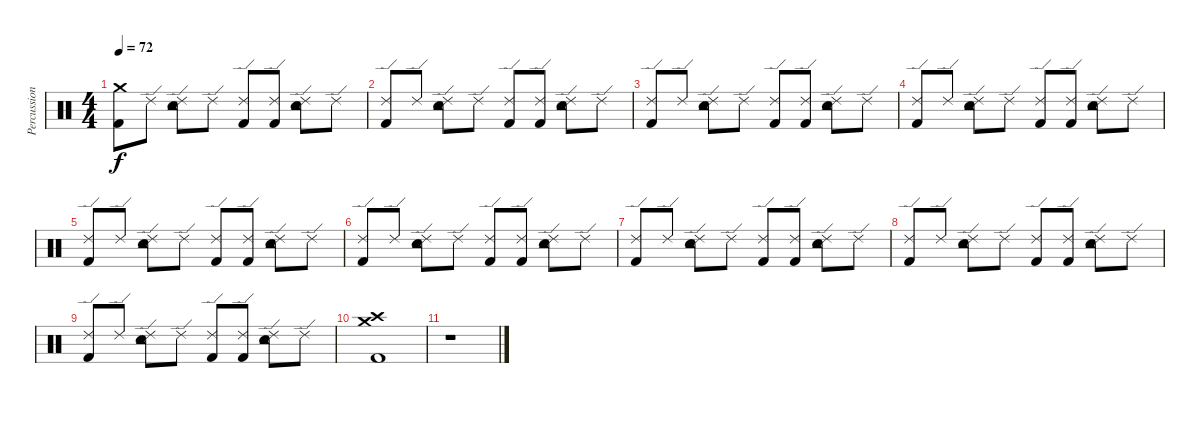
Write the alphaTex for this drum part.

\track ("Percussion" "Percussion") {instrument percussion}
\staff {score}
\articulation defaults
\ts (4 4)
\tempo 72
\clef neutral
\ks c
("Crash medium (hit)" "Kick (hit) 2").8{dy f} "Ride (edge) 2".8 ("Ride (edge) 2" "Snare (hit) 2" "Tambourine (hit)").8 "Ride (edge) 2".8 ("Ride (edge) 2" "Kick (hit) 2").8 ("Ride (edge) 2" "Kick (hit) 2").8 ("Ride (edge) 2" "Snare (hit) 2" "Tambourine (hit)").8 "Ride (edge) 2".8 |
("Ride (edge) 2" "Kick (hit) 2").8 "Ride (edge) 2".8 ("Ride (edge) 2" "Snare (hit) 2" "Tambourine (hit)").8 "Ride (edge) 2".8 ("Ride (edge) 2" "Kick (hit) 2").8 ("Ride (edge) 2" "Kick (hit) 2").8 ("Ride (edge) 2" "Snare (hit) 2" "Tambourine (hit)").8 "Ride (edge) 2".8 |
("Ride (edge) 2" "Kick (hit) 2").8 "Ride (edge) 2".8 ("Ride (edge) 2" "Snare (hit) 2" "Tambourine (hit)").8 "Ride (edge) 2".8 ("Ride (edge) 2" "Kick (hit) 2").8 ("Ride (edge) 2" "Kick (hit) 2").8 ("Ride (edge) 2" "Snare (hit) 2" "Tambourine (hit)").8 "Ride (edge) 2".8 |
("Ride (edge) 2" "Kick (hit) 2").8 "Ride (edge) 2".8 ("Ride (edge) 2" "Snare (hit) 2" "Tambourine (hit)").8 "Ride (edge) 2".8 ("Ride (edge) 2" "Kick (hit) 2").8 ("Ride (edge) 2" "Kick (hit) 2").8 ("Ride (edge) 2" "Snare (hit) 2" "Tambourine (hit)").8 "Ride (edge) 2".8 |
("Ride (edge) 2" "Kick (hit) 2").8 "Ride (edge) 2".8 ("Ride (edge) 2" "Snare (hit) 2" "Tambourine (hit)").8 "Ride (edge) 2".8 ("Ride (edge) 2" "Kick (hit) 2").8 ("Ride (edge) 2" "Kick (hit) 2").8 ("Ride (edge) 2" "Snare (hit) 2" "Tambourine (hit)").8 "Ride (edge) 2".8 |
("Ride (edge) 2" "Kick (hit) 2").8 "Ride (edge) 2".8 ("Ride (edge) 2" "Snare (hit) 2" "Tambourine (hit)").8 "Ride (edge) 2".8 ("Ride (edge) 2" "Kick (hit) 2").8 ("Ride (edge) 2" "Kick (hit) 2").8 ("Ride (edge) 2" "Snare (hit) 2" "Tambourine (hit)").8 "Ride (edge) 2".8 |
("Ride (edge) 2" "Kick (hit) 2").8 "Ride (edge) 2".8 ("Ride (edge) 2" "Snare (hit) 2" "Tambourine (hit)").8 "Ride (edge) 2".8 ("Ride (edge) 2" "Kick (hit) 2").8 ("Ride (edge) 2" "Kick (hit) 2").8 ("Ride (edge) 2" "Snare (hit) 2" "Tambourine (hit)").8 "Ride (edge) 2".8 |
("Ride (edge) 2" "Kick (hit) 2").8 "Ride (edge) 2".8 ("Ride (edge) 2" "Snare (hit) 2" "Tambourine (hit)").8 "Ride (edge) 2".8 ("Ride (edge) 2" "Kick (hit) 2").8 ("Ride (edge) 2" "Kick (hit) 2").8 ("Ride (edge) 2" "Snare (hit) 2" "Tambourine (hit)").8 "Ride (edge) 2".8 |
("Ride (edge) 2" "Kick (hit) 2").8 "Ride (edge) 2".8 ("Ride (edge) 2" "Snare (hit) 2" "Tambourine (hit)").8 "Ride (edge) 2".8 ("Ride (edge) 2" "Kick (hit) 2").8 ("Ride (edge) 2" "Kick (hit) 2").8 ("Ride (edge) 2" "Snare (hit) 2" "Tambourine (hit)").8 "Ride (edge) 2".8 |
("Crash high (hit)" "Crash medium (hit)" "Kick (hit) 2").1 |
r.1
